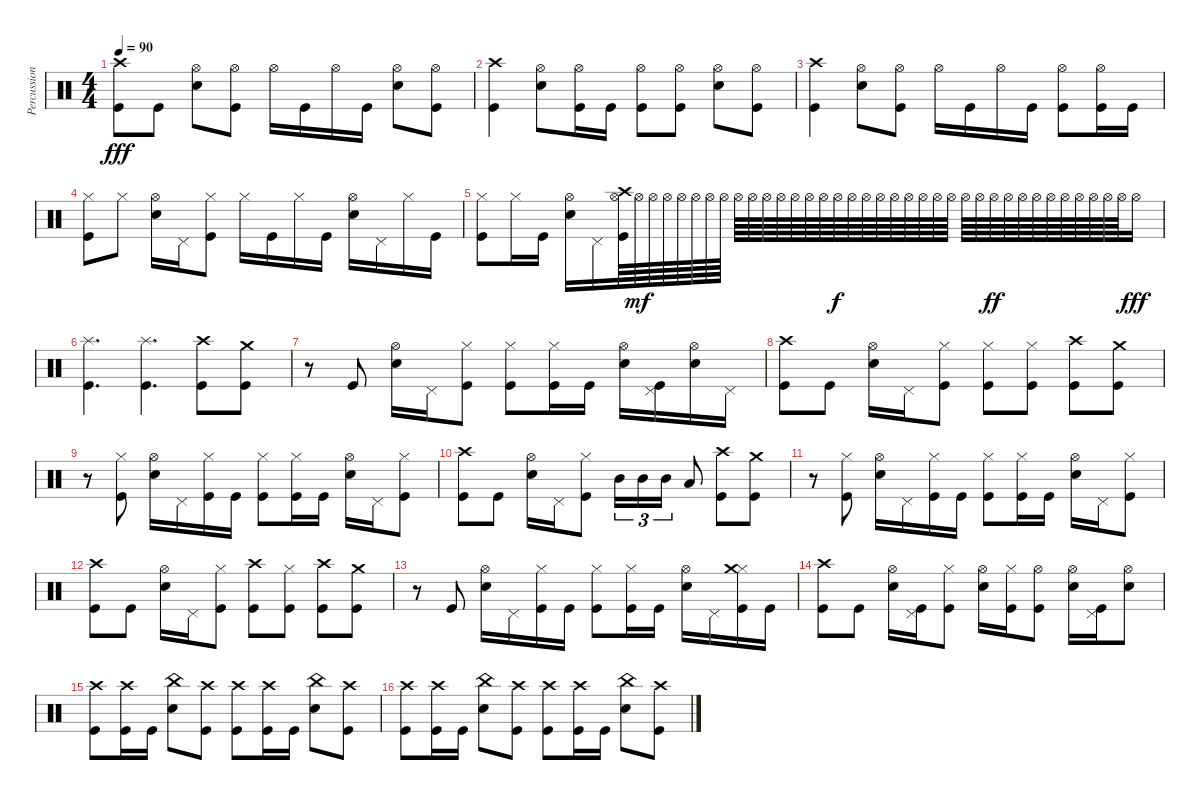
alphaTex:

\track ("Percussion" "Percussion") {instrument percussion}
\staff {score}
\articulation defaults
\ts (4 4)
\tempo 90
\clef neutral
\ks c
("Crash high (hit)" "Kick (hit)").8{dy fff} "Kick (hit)".8 ("Hi-Hat (open)" "Electric Snare (hit)").8 ("Hi-Hat (open)" "Kick (hit)").8 "Hi-Hat (open)".16 "Kick (hit)".16 "Hi-Hat (open)".16 "Kick (hit)".16 ("Hi-Hat (open)" "Electric Snare (hit)").8 ("Hi-Hat (open)" "Kick (hit)").8 |
("Crash high (hit)" "Kick (hit)").4 ("Hi-Hat (open)" "Electric Snare (hit)").8 ("Hi-Hat (open)" "Kick (hit)").16 "Kick (hit)".16 ("Hi-Hat (open)" "Kick (hit)").8 ("Hi-Hat (open)" "Kick (hit)").8 ("Hi-Hat (open)" "Electric Snare (hit)").8 ("Hi-Hat (open)" "Kick (hit)").8 |
("Crash high (hit)" "Kick (hit)").4 ("Hi-Hat (open)" "Electric Snare (hit)").8 ("Hi-Hat (open)" "Kick (hit)").8 "Hi-Hat (open)".16 "Kick (hit)".16 "Hi-Hat (open)".16 "Kick (hit)".16 ("Hi-Hat (open)" "Kick (hit)").8 ("Hi-Hat (open)" "Kick (hit)").16 "Kick (hit)".16 |
("Hi-Hat (closed)" "Kick (hit)").8 "Hi-Hat (closed)".8 ("Hi-Hat (open)" "Electric Snare (hit)").16 "Pedal Hi-Hat (hit)".16 ("Hi-Hat (closed)" "Kick (hit)").8 "Hi-Hat (closed)".16 "Kick (hit)".16 "Hi-Hat (closed)".16 "Kick (hit)".16 ("Hi-Hat (open)" "Electric Snare (hit)").16 "Pedal Hi-Hat (hit)".16 "Hi-Hat (closed)".16 "Kick (hit)".16 |
("Hi-Hat (closed)" "Kick (hit)").8 "Hi-Hat (closed)".16 "Kick (hit)".16 ("Hi-Hat (open)" "Electric Snare (hit)").16 "Pedal Hi-Hat (hit)".16 ("Hi-Hat (open)" "Crash high (hit)" "Kick (hit)").64 "Hi-Hat (open)".64{dy mf} "Hi-Hat (open)".64 "Hi-Hat (open)".64 "Hi-Hat (open)".64 "Hi-Hat (open)".64 "Hi-Hat (open)".64 "Hi-Hat (open)".64 "Hi-Hat (open)".64 "Hi-Hat (open)".64 "Hi-Hat (open)".64 "Hi-Hat (open)".64 "Hi-Hat (open)".64 "Hi-Hat (open)".64 "Hi-Hat (open)".64 "Hi-Hat (open)".64{dy f} "Hi-Hat (open)".64 "Hi-Hat (open)".64 "Hi-Hat (open)".64 "Hi-Hat (open)".64 "Hi-Hat (open)".64 "Hi-Hat (open)".64 "Hi-Hat (open)".64 "Hi-Hat (open)".64 "Hi-Hat (open)".64 "Hi-Hat (open)".64 "Hi-Hat (open)".64{dy ff} "Hi-Hat (open)".64 "Hi-Hat (open)".64 "Hi-Hat (open)".64 "Hi-Hat (open)".64 "Hi-Hat (open)".64 "Hi-Hat (open)".64 "Hi-Hat (open)".64 "Hi-Hat (open)".64 "Hi-Hat (open)".64 "Hi-Hat (open)".16{dy fff} |
("Splash (hit)" "Kick (hit)").4{d} ("Splash (hit)" "Kick (hit)").4{d} ("Crash high (hit)" "Kick (hit)").8 ("Crash medium (hit)" "Kick (hit)").8 |
r.8 "Kick (hit)".8 ("Hi-Hat (open)" "Electric Snare (hit)").16 "Pedal Hi-Hat (hit)".16 ("Hi-Hat (closed)" "Kick (hit)").8 ("Hi-Hat (closed)" "Kick (hit)").8 ("Hi-Hat (closed)" "Kick (hit)").16 "Kick (hit)".16 ("Hi-Hat (open)" "Electric Snare (hit)").16 ("Pedal Hi-Hat (hit)" "Kick (hit)").16 ("Hi-Hat (open)" "Electric Snare (hit)").16 "Pedal Hi-Hat (hit)".16 |
("Crash high (hit)" "Kick (hit)").8 "Kick (hit)".8 ("Hi-Hat (open)" "Electric Snare (hit)").16 "Pedal Hi-Hat (hit)".16 ("Hi-Hat (closed)" "Kick (hit)").8 ("Hi-Hat (closed)" "Kick (hit)").8 ("Hi-Hat (closed)" "Kick (hit)").8 ("Crash high (hit)" "Kick (hit)").8 ("Crash medium (hit)" "Kick (hit)").8 |
r.8 ("Hi-Hat (closed)" "Kick (hit)").8 ("Hi-Hat (open)" "Electric Snare (hit)").16 "Pedal Hi-Hat (hit)".16 ("Hi-Hat (closed)" "Kick (hit)").16 "Kick (hit)".16 ("Hi-Hat (closed)" "Kick (hit)").8 ("Hi-Hat (closed)" "Kick (hit)").16 "Kick (hit)".16 ("Hi-Hat (open)" "Electric Snare (hit)").16 "Pedal Hi-Hat (hit)".16 ("Hi-Hat (closed)" "Kick (hit)").8 |
("Crash high (hit)" "Kick (hit)").8 "Kick (hit)".8 ("Hi-Hat (open)" "Electric Snare (hit)").16 "Pedal Hi-Hat (hit)".16 ("Hi-Hat (closed)" "Kick (hit)").8 "Mid Tom (hit)".16{tu (3 2)} "Mid Tom (hit)".16{tu (3 2)} "Mid Tom (hit)".16{tu (3 2)} "Low Tom (hit)".8 ("Crash high (hit)" "Kick (hit)").8 ("Crash medium (hit)" "Kick (hit)").8 |
r.8 ("Hi-Hat (closed)" "Kick (hit)").8 ("Hi-Hat (open)" "Electric Snare (hit)").16 "Pedal Hi-Hat (hit)".16 ("Hi-Hat (closed)" "Kick (hit)").16 "Kick (hit)".16 ("Hi-Hat (closed)" "Kick (hit)").8 ("Hi-Hat (closed)" "Kick (hit)").16 "Kick (hit)".16 ("Hi-Hat (open)" "Electric Snare (hit)").16 "Pedal Hi-Hat (hit)".16 ("Hi-Hat (closed)" "Kick (hit)").8 |
("Crash high (hit)" "Kick (hit)").8 "Kick (hit)".8 ("Hi-Hat (open)" "Electric Snare (hit)").16 "Pedal Hi-Hat (hit)".16 ("Hi-Hat (closed)" "Kick (hit)").8 ("Crash high (hit)" "Kick (hit)").8 ("Hi-Hat (closed)" "Kick (hit)").8 ("Crash high (hit)" "Kick (hit)").8 ("Crash medium (hit)" "Kick (hit)").8 |
r.8 "Kick (hit)".8 ("Hi-Hat (open)" "Electric Snare (hit)").16 "Pedal Hi-Hat (hit)".16 ("Hi-Hat (closed)" "Kick (hit)").16 "Kick (hit)".16 ("Hi-Hat (closed)" "Kick (hit)").8 ("Hi-Hat (closed)" "Kick (hit)").16 "Kick (hit)".16 ("Hi-Hat (open)" "Electric Snare (hit)").16 "Pedal Hi-Hat (hit)".16 ("Hi-Hat (closed)" "Crash medium (hit)" "Kick (hit)").16 "Kick (hit)".16 |
("Crash high (hit)" "Kick (hit)").8 "Kick (hit)".8 ("Hi-Hat (open)" "Electric Snare (hit)").16 ("Pedal Hi-Hat (hit)" "Kick (hit)").16 ("Hi-Hat (closed)" "Kick (hit)").8 ("Hi-Hat (open)" "Electric Snare (hit)").16 ("Hi-Hat (closed)" "Kick (hit)").16 ("Hi-Hat (open)" "Kick (hit)").8 ("Hi-Hat (open)" "Electric Snare (hit)").16 ("Pedal Hi-Hat (hit)" "Kick (hit)").16 ("Hi-Hat (open)" "Electric Snare (hit)").8 |
("Crash high (hit)" "Kick (hit)").8 ("Crash high (hit)" "Kick (hit)").16 "Kick (hit)".16 ("China (hit)" "Electric Snare (hit)").8 ("Crash high (hit)" "Kick (hit)").8 ("Crash high (hit)" "Kick (hit)").8 ("Crash high (hit)" "Kick (hit)").16 "Kick (hit)".16 ("China (hit)" "Electric Snare (hit)").8 ("Crash high (hit)" "Kick (hit)").8 |
("Crash high (hit)" "Kick (hit)").8 ("Crash high (hit)" "Kick (hit)").16 "Kick (hit)".16 ("China (hit)" "Electric Snare (hit)").8 ("Crash high (hit)" "Kick (hit)").8 ("Crash high (hit)" "Kick (hit)").8 ("Crash high (hit)" "Kick (hit)").16 "Kick (hit)".16 ("China (hit)" "Electric Snare (hit)").8 ("Crash high (hit)" "Kick (hit)").8
